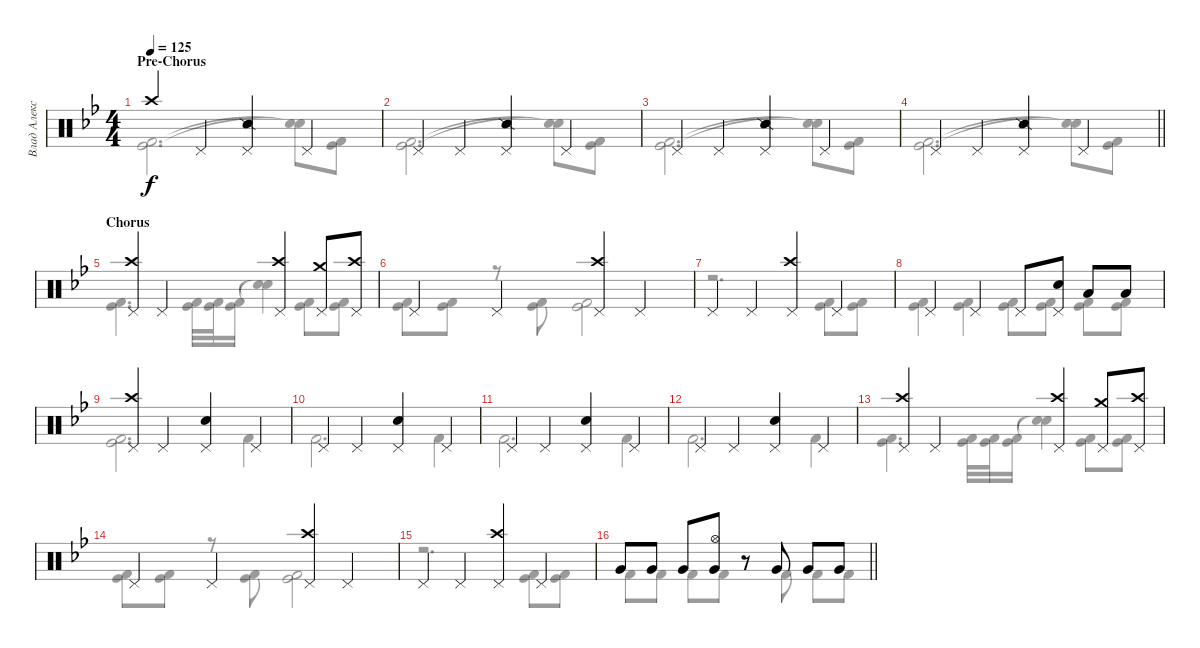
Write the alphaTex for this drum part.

\track ("Влад Алексеенко" "Влад Алекс") {instrument percussion}
\staff {score}
\articulation defaults
\voice
\ts (4 4)
\section ("" "Pre-Chorus")
\tempo 125
\clef neutral
\ks bb "Crash high (hit)".4{dy f} "Pedal Hi-Hat (hit)".4
("Snare (side stick) 2" "Pedal Hi-Hat (hit)").4 "Pedal Hi-Hat (hit)".4 |
"Pedal Hi-Hat (hit)".4 "Pedal Hi-Hat (hit)".4 ("Snare (side stick) 2" "Pedal Hi-Hat (hit)").4 "Pedal Hi-Hat (hit)".4 |
"Pedal Hi-Hat (hit)".4 "Pedal Hi-Hat (hit)".4 ("Snare (side stick) 2" "Pedal Hi-Hat (hit)").4 "Pedal Hi-Hat (hit)".4 |
\barLineRight lightlight "Pedal Hi-Hat (hit)".4 "Pedal Hi-Hat (hit)".4
("Snare (side stick) 2" "Pedal Hi-Hat (hit)").4 "Pedal Hi-Hat (hit)".4 |
\section ("" "Chorus")
("Pedal Hi-Hat (hit)" "Crash high (hit)").4 "Pedal Hi-Hat (hit)".4 ("Pedal Hi-Hat (hit)" "Crash high (hit)").4 ("Pedal Hi-Hat (hit)" "Crash medium (hit)").8 ("Pedal Hi-Hat (hit)" "Crash high (hit)").8 |
"Pedal Hi-Hat (hit)".4 "Pedal Hi-Hat (hit)".4 ("Pedal Hi-Hat (hit)" "Crash high (hit)").4 "Pedal Hi-Hat (hit)".4 |
"Pedal Hi-Hat (hit)".4 "Pedal Hi-Hat (hit)".4 ("Pedal Hi-Hat (hit)" "Crash high (hit)").4 "Pedal Hi-Hat (hit)".4 |
"Pedal Hi-Hat (hit)".4 "Pedal Hi-Hat (hit)".4 "Pedal Hi-Hat (hit)".8 ("Snare (hit) 2" "Pedal Hi-Hat (hit)").8 "Low Tom (hit)".8 "Low Tom (hit)".8 |
("Pedal Hi-Hat (hit)" "Crash high (hit)").4 "Pedal Hi-Hat (hit)".4 ("Snare (hit) 2" "Pedal Hi-Hat (hit)").4 "Pedal Hi-Hat (hit)".4 |
"Pedal Hi-Hat (hit)".4 "Pedal Hi-Hat (hit)".4 ("Snare (hit) 2" "Pedal Hi-Hat (hit)").4 "Pedal Hi-Hat (hit)".4 |
"Pedal Hi-Hat (hit)".4 "Pedal Hi-Hat (hit)".4 ("Snare (hit) 2" "Pedal Hi-Hat (hit)").4 "Pedal Hi-Hat (hit)".4 |
"Pedal Hi-Hat (hit)".4 "Pedal Hi-Hat (hit)".4 ("Snare (hit) 2" "Pedal Hi-Hat (hit)").4 "Pedal Hi-Hat (hit)".4 |
("Pedal Hi-Hat (hit)" "Crash high (hit)").4 "Pedal Hi-Hat (hit)".4 ("Pedal Hi-Hat (hit)" "Crash high (hit)").4 ("Pedal Hi-Hat (hit)" "Crash medium (hit)").8 ("Pedal Hi-Hat (hit)" "Crash high (hit)").8 |
"Pedal Hi-Hat (hit)".4 "Pedal Hi-Hat (hit)".4 ("Pedal Hi-Hat (hit)" "Crash high (hit)").4 "Pedal Hi-Hat (hit)".4 |
"Pedal Hi-Hat (hit)".4 "Pedal Hi-Hat (hit)".4 ("Pedal Hi-Hat (hit)" "Crash high (hit)").4 "Pedal Hi-Hat (hit)".4 |
\barLineRight lightlight "Very Low Tom (hit)".8 "Very Low Tom (hit)".8 "Very Low Tom (hit)".8
("Very Low Tom (hit)" "Hi-Hat (open)").8 r.8 "Very Low Tom (hit)".8 "Very Low Tom (hit)".8 "Very Low Tom (hit)".8
\voice
\clef neutral
\ottava regular
\simile none
\ks bb
("Kick (hit)" "Kick (hit) 2").2{d dy f} ("Snare (hit)"{t} "Snare (hit)"{t}).8 ("Kick (hit)" "Kick (hit) 2").8 |
("Kick (hit)" "Kick (hit) 2").2{d} ("Snare (hit)"{t} "Snare (hit)"{t}).8 ("Kick (hit)" "Kick (hit) 2").8 |
("Kick (hit)" "Kick (hit) 2").2{d} ("Snare (hit)"{t} "Snare (hit)"{t}).8 ("Kick (hit)" "Kick (hit) 2").8 |
\barLineRight lightlight
("Kick (hit)" "Kick (hit) 2").2{d} ("Snare (hit)"{t} "Snare (hit)"{t}).8 ("Kick (hit)" "Kick (hit) 2").8 |
("Kick (hit)" "Kick (hit) 2").4{d} ("Kick (hit)" "Kick (hit) 2").32 ("Kick (hit)" "Kick (hit) 2").32 ("Kick (hit)" "Kick (hit) 2").16 ("Snare (hit)"{t} "Snare (hit)"{t}).4 ("Kick (hit)" "Kick (hit) 2").8 ("Kick (hit)" "Kick (hit) 2").8 |
("Kick (hit)" "Kick (hit) 2").8 ("Kick (hit)" "Kick (hit) 2").8 r.8 ("Kick (hit)" "Kick (hit) 2").8 ("Kick (hit)" "Kick (hit) 2").2 |
r.2{d} ("Kick (hit)" "Kick (hit) 2").8 ("Kick (hit)" "Kick (hit) 2").8 |
("Kick (hit)" "Kick (hit) 2").4 ("Kick (hit)" "Kick (hit) 2").4 ("Kick (hit)" "Kick (hit) 2").8 ("Kick (hit)" "Kick (hit) 2").8 ("Kick (hit)" "Kick (hit) 2").8 ("Kick (hit)" "Kick (hit) 2").8 |
("Kick (hit)" "Kick (hit) 2").2{d} "Kick (hit) 2".4 |
"Kick (hit) 2".2{d} "Kick (hit) 2".4 |
"Kick (hit) 2".2{d} "Kick (hit) 2".4 |
"Kick (hit) 2".2{d} "Kick (hit) 2".4 |
("Kick (hit)" "Kick (hit) 2").4{d} ("Kick (hit)" "Kick (hit) 2").32 ("Kick (hit)" "Kick (hit) 2").32 ("Kick (hit)" "Kick (hit) 2").16 ("Snare (hit)"{t} "Snare (hit)"{t}).4 ("Kick (hit)" "Kick (hit) 2").8 ("Kick (hit)" "Kick (hit) 2").8 |
("Kick (hit)" "Kick (hit) 2").8 ("Kick (hit)" "Kick (hit) 2").8 r.8 ("Kick (hit)" "Kick (hit) 2").8 ("Kick (hit)" "Kick (hit) 2").2 |
r.2{d} ("Kick (hit)" "Kick (hit) 2").8 ("Kick (hit)" "Kick (hit) 2").8 |
\barLineRight lightlight "Kick (hit) 2".8 "Kick (hit) 2".8 "Kick (hit) 2".8 "Kick (hit) 2".8
r.8 "Kick (hit) 2".8 "Kick (hit) 2".8 "Kick (hit) 2".8
